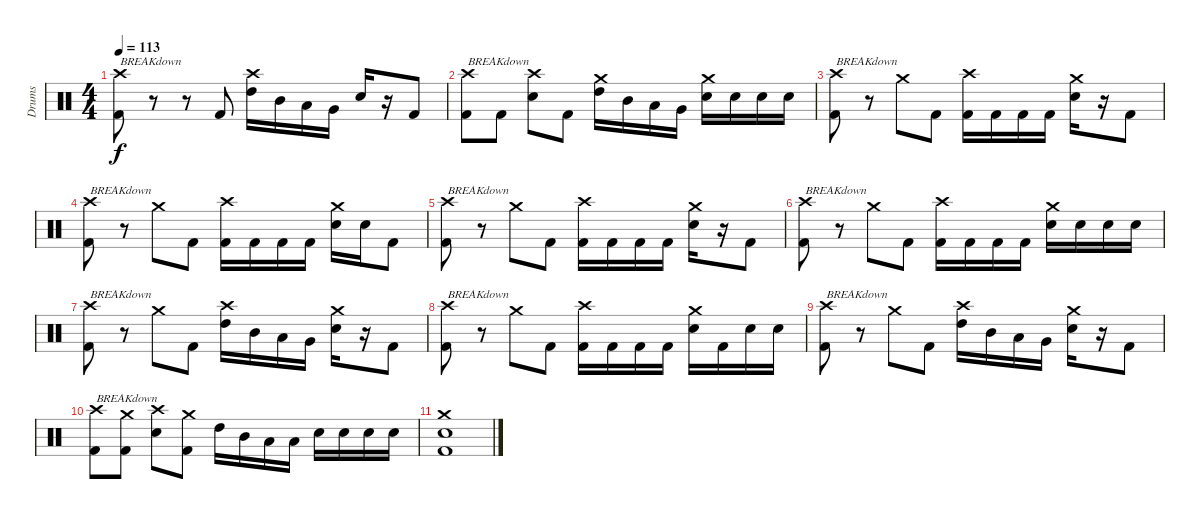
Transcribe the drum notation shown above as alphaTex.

\track ("Drums" "Drums") {instrument percussion}
\staff {score}
\articulation defaults
\ts (4 4)
\tempo 113
\clef neutral
\ks c
("Crash high (hit)" "Kick (hit) 2").8{txt "BREAKdown" dy f} r.8 r.8 "Kick (hit) 2".8 ("Crash high (hit)" "High Tom (hit)").16 "Mid Tom (hit)".16 "Low Tom (hit)".16 "Very Low Tom (hit)".16 "Snare (hit) 2".16 r.16 "Kick (hit) 2".8 |
("Crash high (hit)" "Kick (hit) 2").8{txt "BREAKdown"} "Kick (hit) 2".8 ("Crash high (hit)" "Snare (hit) 2").8 "Kick (hit) 2".8 ("Crash medium (hit)" "High Tom (hit)").16 "Mid Tom (hit)".16 "Low Tom (hit)".16 "Very Low Tom (hit)".16 ("Crash medium (hit)" "Snare (hit) 2").16 "Snare (hit) 2".16 "Snare (hit) 2".16 "Snare (hit) 2".16 |
("Crash high (hit)" "Kick (hit) 2").8{txt "BREAKdown"} r.8 "Crash medium (hit)".8 "Kick (hit) 2".8 ("Crash high (hit)" "Kick (hit) 2").16 "Kick (hit) 2".16 "Kick (hit) 2".16 "Kick (hit) 2".16 ("Crash medium (hit)" "Snare (hit) 2").16 r.16 "Kick (hit) 2".8 |
("Crash high (hit)" "Kick (hit) 2").8{txt "BREAKdown"} r.8 "Crash medium (hit)".8 "Kick (hit) 2".8 ("Crash high (hit)" "Kick (hit) 2").16 "Kick (hit) 2".16 "Kick (hit) 2".16 "Kick (hit) 2".16 ("Crash medium (hit)" "Snare (hit) 2").16 "Snare (hit) 2".16 "Kick (hit) 2".8 |
("Crash high (hit)" "Kick (hit) 2").8{txt "BREAKdown"} r.8 "Crash medium (hit)".8 "Kick (hit) 2".8 ("Crash high (hit)" "Kick (hit) 2").16 "Kick (hit) 2".16 "Kick (hit) 2".16 "Kick (hit) 2".16 ("Crash medium (hit)" "Snare (hit) 2").16 r.16 "Kick (hit) 2".8 |
("Crash high (hit)" "Kick (hit) 2").8{txt "BREAKdown"} r.8 "Crash medium (hit)".8 "Kick (hit) 2".8 ("Crash high (hit)" "Kick (hit) 2").16 "Kick (hit) 2".16 "Kick (hit) 2".16 "Kick (hit) 2".16 ("Crash medium (hit)" "Snare (hit) 2").16 "Snare (hit) 2".16 "Snare (hit) 2".16 "Snare (hit) 2".16 |
("Crash high (hit)" "Kick (hit) 2").8{txt "BREAKdown"} r.8 "Crash medium (hit)".8 "Kick (hit) 2".8 ("Crash high (hit)" "High Tom (hit)").16 "Mid Tom (hit)".16 "Low Tom (hit)".16 "Very Low Tom (hit)".16 ("Crash medium (hit)" "Snare (hit) 2").16 r.16 "Kick (hit) 2".8 |
("Crash high (hit)" "Kick (hit) 2").8{txt "BREAKdown"} r.8 "Crash medium (hit)".8 "Kick (hit) 2".8 ("Crash high (hit)" "Kick (hit) 2").16 "Kick (hit) 2".16 "Kick (hit) 2".16 "Kick (hit) 2".16 ("Crash medium (hit)" "Snare (hit) 2").16 "Kick (hit) 2".16 "Snare (hit) 2".16 "Snare (hit) 2".16 |
("Crash high (hit)" "Kick (hit) 2").8{txt "BREAKdown"} r.8 "Crash medium (hit)".8 "Kick (hit) 2".8 ("Crash high (hit)" "High Tom (hit)").16 "Mid Tom (hit)".16 "Low Tom (hit)".16 "Very Low Tom (hit)".16 ("Crash medium (hit)" "Snare (hit) 2").16 r.16 "Kick (hit) 2".8 |
("Crash high (hit)" "Kick (hit) 2").8{txt "BREAKdown"} ("Crash medium (hit)" "Kick (hit) 2").8 ("Crash high (hit)" "Snare (hit) 2").8 ("Crash medium (hit)" "Kick (hit) 2").8 "High Tom (hit)".16 "Mid Tom (hit)".16 "Low Tom (hit)".16 "Low Tom (hit)".16 "Snare (hit) 2".16 "Snare (hit) 2".16 "Snare (hit) 2".16 "Snare (hit) 2".16 |
("Crash medium (hit)" "Snare (hit) 2" "Kick (hit) 2").1
